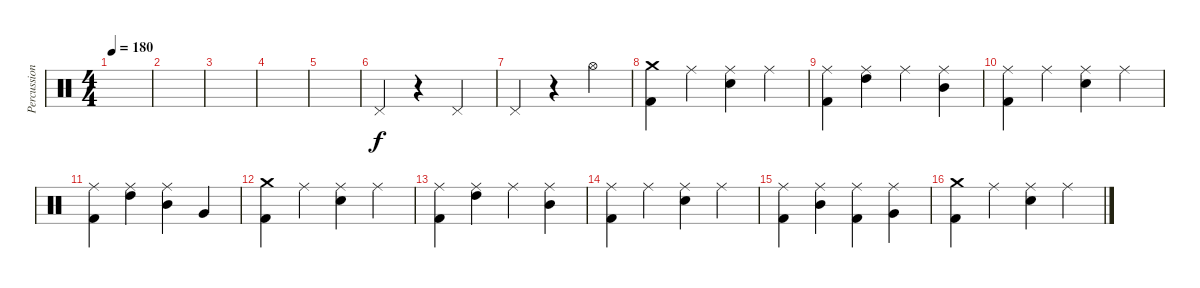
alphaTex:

\track ("Percussion" "Percussion") {instrument percussion}
\staff {score}
\articulation defaults
\ts (4 4)
\tempo 180
\clef neutral
\ks c
|
|
|
|
|
"Pedal Hi-Hat (hit)".4 r.4 "Pedal Hi-Hat (hit)".4 |
"Pedal Hi-Hat (hit)".4 r.4 "Hi-Hat (open)".4 |
("Kick (hit) 2" "Crash medium (hit)").4 "Ride (middle)".4 ("Snare (hit) 2" "Ride (middle)").4 "Ride (middle)".4 |
("Kick (hit) 2" "Ride (middle)").4 ("High Tom (hit)" "Ride (middle)").4 "Ride (middle)".4 ("Mid Tom (hit)" "Ride (middle)").4 |
("Kick (hit) 2" "Ride (middle)").4 "Ride (middle)".4 ("Snare (hit) 2" "Ride (middle)").4 "Ride (middle)".4 |
("Kick (hit) 2" "Ride (middle)").4 ("High Tom (hit)" "Ride (middle)").4 ("Mid Tom (hit)" "Ride (middle)").4 "Very Low Tom (hit)".4 |
("Kick (hit) 2" "Crash medium (hit)").4 "Ride (middle)".4 ("Snare (hit) 2" "Ride (middle)").4 "Ride (middle)".4 |
("Kick (hit) 2" "Ride (middle)").4 ("High Tom (hit)" "Ride (middle)").4 "Ride (middle)".4 ("Mid Tom (hit)" "Ride (middle)").4 |
("Kick (hit) 2" "Ride (middle)").4 "Ride (middle)".4 ("Snare (hit) 2" "Ride (middle)").4 "Ride (middle)".4 |
("Kick (hit) 2" "Ride (middle)").4 ("Mid Tom (hit)" "Ride (middle)").4 ("Kick (hit) 2" "Ride (middle)").4 ("Very Low Tom (hit)" "Ride (middle)").4 |
("Kick (hit) 2" "Crash medium (hit)").4 "Ride (middle)".4 ("Snare (hit) 2" "Ride (middle)").4 "Ride (middle)".4
